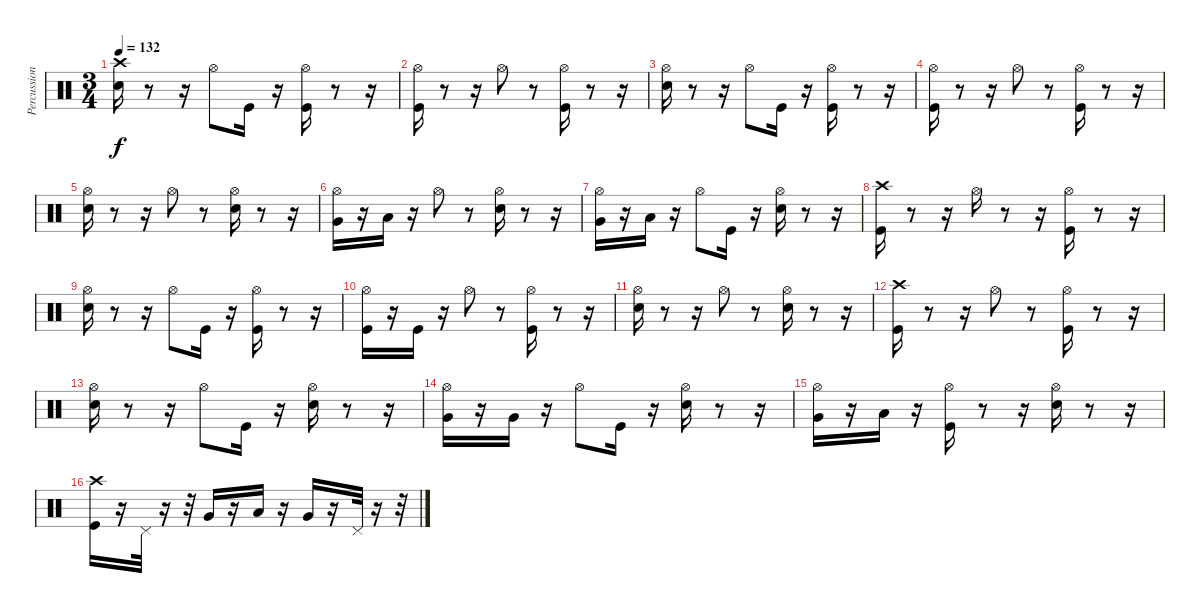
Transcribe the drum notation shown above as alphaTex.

\track ("Percussion" "Percussion") {instrument percussion}
\staff {score}
\articulation defaults
\ts (3 4)
\tempo 132
\clef neutral
\ks c
("Snare (hit) 2" "Crash high (hit)").16{dy f} r.8 r.16 "Hi-Hat (open)".8 "Kick (hit)".16 r.16 ("Hi-Hat (open)" "Kick (hit)").16 r.8 r.16 |
("Kick (hit)" "Hi-Hat (open)").16 r.8 r.16 "Hi-Hat (open)".8 r.8 ("Hi-Hat (open)" "Kick (hit)").16 r.8 r.16 |
("Hi-Hat (open)" "Snare (hit) 2").16 r.8 r.16 "Hi-Hat (open)".8 "Kick (hit)".16 r.16 ("Hi-Hat (open)" "Kick (hit)").16 r.8 r.16 |
("Hi-Hat (open)" "Kick (hit)").16 r.8 r.16 "Hi-Hat (open)".8 r.8 ("Kick (hit)" "Hi-Hat (open)").16 r.8 r.16 |
("Hi-Hat (open)" "Snare (hit) 2").16 r.8 r.16 "Hi-Hat (open)".8 r.8 ("Snare (hit) 2" "Hi-Hat (open)").16 r.8 r.16 |
("Hi-Hat (open)" "Very Low Tom (hit)").16 r.16 "Low Floor Tom (hit)".16 r.16 "Hi-Hat (open)".8 r.8 ("Hi-Hat (open)" "Snare (hit) 2").16 r.8 r.16 |
("Hi-Hat (open)" "Very Low Tom (hit)").16 r.16 "Low Floor Tom (hit)".16 r.16 "Hi-Hat (open)".8 "Kick (hit)".16 r.16 ("Hi-Hat (open)" "Snare (hit) 2").16 r.8 r.16 |
("Kick (hit)" "Crash high (hit)").16 r.8 r.16 "Hi-Hat (open)".16 r.8 r.16 ("Hi-Hat (open)" "Kick (hit)").16 r.8 r.16 |
("Snare (hit) 2" "Hi-Hat (open)").16 r.8 r.16 "Hi-Hat (open)".8 "Kick (hit)".16 r.16 ("Hi-Hat (open)" "Kick (hit)").16 r.8 r.16 |
("Kick (hit)" "Hi-Hat (open)").16 r.16 "Kick (hit)".16 r.16 "Hi-Hat (open)".8 r.8 ("Hi-Hat (open)" "Kick (hit)").16 r.8 r.16 |
("Hi-Hat (open)" "Snare (hit) 2").16 r.8 r.16 "Hi-Hat (open)".8 r.8 ("Hi-Hat (open)" "Snare (hit) 2").16 r.8 r.16 |
("Kick (hit)" "Crash high (hit)").16 r.8 r.16 "Hi-Hat (open)".8 r.8 ("Kick (hit)" "Hi-Hat (open)").16 r.8 r.16 |
("Hi-Hat (open)" "Snare (hit) 2").16 r.8 r.16 "Hi-Hat (open)".8 "Kick (hit)".16 r.16 ("Hi-Hat (open)" "Snare (hit) 2").16 r.8 r.16 |
("Hi-Hat (open)" "Very Low Tom (hit)").16 r.16 "Very Low Tom (hit)".16 r.16 "Hi-Hat (open)".8 "Kick (hit)".16 r.16 ("Hi-Hat (open)" "Snare (hit) 2").16 r.8 r.16 |
("Hi-Hat (open)" "Very Low Tom (hit)").16 r.16 "Low Floor Tom (hit)".16 r.16 ("Hi-Hat (open)" "Kick (hit)").16 r.8 r.16 ("Hi-Hat (open)" "Snare (hit) 2").16 r.8 r.16 |
("Crash high (hit)" "Kick (hit)").16 r.16 "Pedal Hi-Hat (hit)".32 r.16 r.32 "Very Low Tom (hit)".16 r.16 "Low Tom (hit)".16 r.16 "Very Low Tom (hit)".16 r.16 "Pedal Hi-Hat (hit)".32 r.16 r.32
